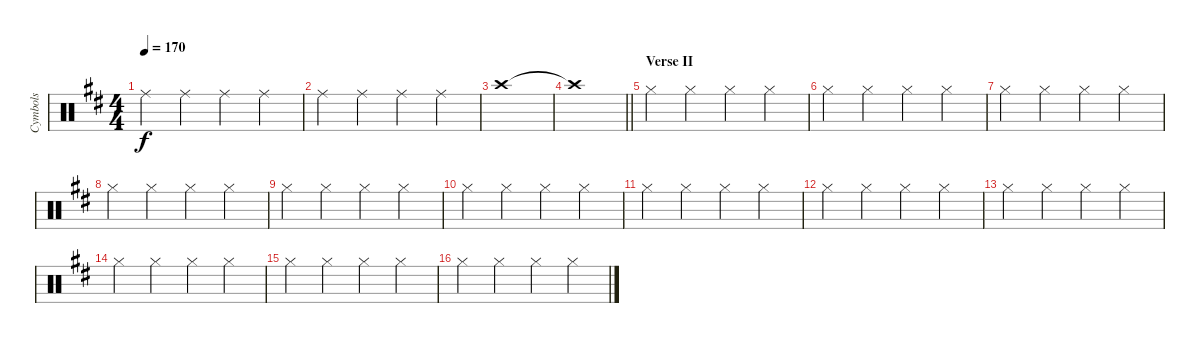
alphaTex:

\track ("Cymbols" "Cymbols") {instrument percussion}
\staff {score}
\articulation defaults
\ts (4 4)
\tempo 170
\clef neutral
\ks d "Ride (middle)".4{dy f} "Ride (middle)".4 "Ride (middle)".4 "Ride (middle)".4
|
"Ride (middle)".4 "Ride (middle)".4 "Ride (middle)".4 "Ride (middle)".4 |
"Crash high (hit)".1 |
\barLineRight lightlight "Crash high (hit)"{t}.1
|
\section ("" "Verse II")
"Hi-Hat (closed)".4 "Hi-Hat (closed)".4 "Hi-Hat (closed)".4 "Hi-Hat (closed)".4 |
"Hi-Hat (closed)".4 "Hi-Hat (closed)".4 "Hi-Hat (closed)".4 "Hi-Hat (closed)".4 |
"Hi-Hat (closed)".4 "Hi-Hat (closed)".4 "Hi-Hat (closed)".4 "Hi-Hat (closed)".4 |
"Hi-Hat (closed)".4 "Hi-Hat (closed)".4 "Hi-Hat (closed)".4 "Hi-Hat (closed)".4 |
"Hi-Hat (closed)".4 "Hi-Hat (closed)".4 "Hi-Hat (closed)".4 "Hi-Hat (closed)".4 |
"Hi-Hat (closed)".4 "Hi-Hat (closed)".4 "Hi-Hat (closed)".4 "Hi-Hat (closed)".4 |
"Hi-Hat (closed)".4 "Hi-Hat (closed)".4 "Hi-Hat (closed)".4 "Hi-Hat (closed)".4 |
"Hi-Hat (closed)".4 "Hi-Hat (closed)".4 "Hi-Hat (closed)".4 "Hi-Hat (closed)".4 |
"Hi-Hat (closed)".4 "Hi-Hat (closed)".4 "Hi-Hat (closed)".4 "Hi-Hat (closed)".4 |
"Hi-Hat (closed)".4 "Hi-Hat (closed)".4 "Hi-Hat (closed)".4 "Hi-Hat (closed)".4 |
"Hi-Hat (closed)".4 "Hi-Hat (closed)".4 "Hi-Hat (closed)".4 "Hi-Hat (closed)".4 |
"Hi-Hat (closed)".4 "Hi-Hat (closed)".4 "Hi-Hat (closed)".4 "Hi-Hat (closed)".4
